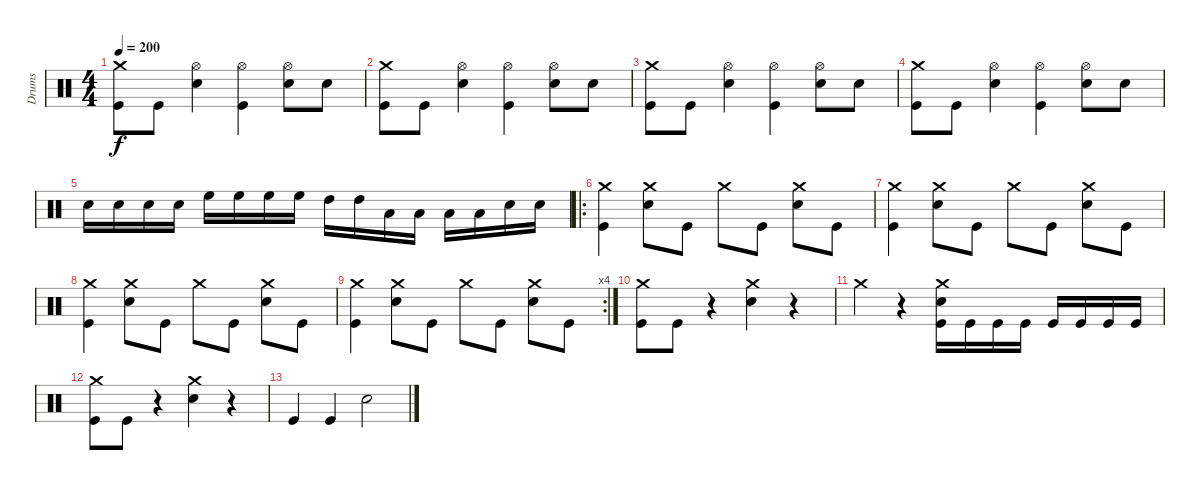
\track ("Drums" "Drums") {instrument percussion}
\staff {score}
\articulation defaults
\ts (4 4)
\tempo 200
\clef neutral
\ks c
("Crash medium (hit)" "Kick (hit)").8{dy f} "Kick (hit)".8 ("Hi-Hat (open)" "Snare (hit) 2").4 ("Hi-Hat (open)" "Kick (hit)").4 ("Hi-Hat (open)" "Snare (hit) 2").8 "Snare (hit) 2".8 |
("Crash medium (hit)" "Kick (hit)").8 "Kick (hit)".8 ("Hi-Hat (open)" "Snare (hit) 2").4 ("Hi-Hat (open)" "Kick (hit)").4 ("Hi-Hat (open)" "Snare (hit) 2").8 "Snare (hit) 2".8 |
("Crash medium (hit)" "Kick (hit)").8 "Kick (hit)".8 ("Hi-Hat (open)" "Snare (hit) 2").4 ("Hi-Hat (open)" "Kick (hit)").4 ("Hi-Hat (open)" "Snare (hit) 2").8 "Snare (hit) 2".8 |
("Crash medium (hit)" "Kick (hit)").8 "Kick (hit)".8 ("Hi-Hat (open)" "Snare (hit) 2").4 ("Hi-Hat (open)" "Kick (hit)").4 ("Hi-Hat (open)" "Snare (hit) 2").8 "Snare (hit) 2".8 |
"Snare (hit) 2".16 "Snare (hit) 2".16 "Snare (hit) 2".16 "Snare (hit) 2".16 "High Floor Tom (hit)".16 "High Floor Tom (hit)".16 "High Floor Tom (hit)".16 "High Floor Tom (hit)".16 "High Tom (hit)".16 "High Tom (hit)".16 "Low Tom (hit)".16 "Low Tom (hit)".16 "Low Floor Tom (hit)".16 "Low Floor Tom (hit)".16 "Snare (hit) 2".16 "Snare (hit) 2".16 |
\ro
("Crash medium (hit)" "Kick (hit)").4 ("Crash medium (hit)" "Snare (hit) 2").8 "Kick (hit)".8 "Crash medium (hit)".8 "Kick (hit)".8 ("Crash medium (hit)" "Snare (hit) 2").8 "Kick (hit)".8 |
("Crash medium (hit)" "Kick (hit)").4 ("Crash medium (hit)" "Snare (hit) 2").8 "Kick (hit)".8 "Crash medium (hit)".8 "Kick (hit)".8 ("Crash medium (hit)" "Snare (hit) 2").8 "Kick (hit)".8 |
("Crash medium (hit)" "Kick (hit)").4 ("Crash medium (hit)" "Snare (hit) 2").8 "Kick (hit)".8 "Crash medium (hit)".8 "Kick (hit)".8 ("Crash medium (hit)" "Snare (hit) 2").8 "Kick (hit)".8 |
\rc 4
("Crash medium (hit)" "Kick (hit)").4 ("Crash medium (hit)" "Snare (hit) 2").8 "Kick (hit)".8 "Crash medium (hit)".8 "Kick (hit)".8 ("Crash medium (hit)" "Snare (hit) 2").8 "Kick (hit)".8 |
("Crash medium (hit)" "Kick (hit)").8 "Kick (hit)".8 r.4 ("Crash medium (hit)" "Snare (hit) 2").4 r.4 |
"Crash medium (hit)".4 r.4 ("Crash medium (hit)" "Snare (hit) 2" "Kick (hit)").16 "Kick (hit)".16 "Kick (hit)".16 "Kick (hit)".16 "Kick (hit)".16 "Kick (hit)".16 "Kick (hit)".16 "Kick (hit)".16 |
("Crash medium (hit)" "Kick (hit)").8 "Kick (hit)".8 r.4 ("Crash medium (hit)" "Snare (hit) 2").4 r.4 |
"Kick (hit)".4 "Kick (hit)".4 "Snare (hit) 2".2
